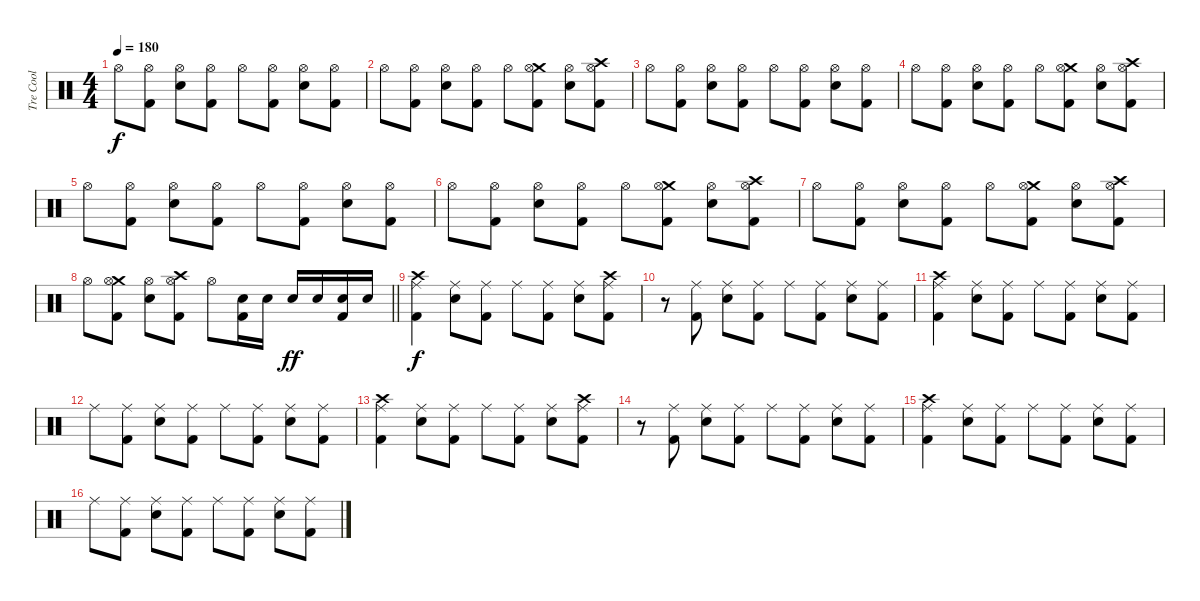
\track ("Tre Cool" "Tre Cool") {instrument percussion}
\staff {score}
\articulation defaults
\ts (4 4)
\tempo 180
\clef neutral
\ks c "Hi-Hat (open)".8{dy f}
("Hi-Hat (open)" "Kick (hit) 2").8 ("Hi-Hat (open)" "Electric Snare (hit)").8 ("Hi-Hat (open)" "Kick (hit) 2").8 "Hi-Hat (open)".8 ("Hi-Hat (open)" "Kick (hit) 2").8 ("Hi-Hat (open)" "Electric Snare (hit)").8 ("Hi-Hat (open)" "Kick (hit) 2").8 |
"Hi-Hat (open)".8 ("Hi-Hat (open)" "Kick (hit) 2").8 ("Hi-Hat (open)" "Electric Snare (hit)").8 ("Hi-Hat (open)" "Kick (hit) 2").8 "Hi-Hat (open)".8 ("Crash medium (hit)" "Hi-Hat (open)" "Kick (hit) 2").8 ("Hi-Hat (open)" "Electric Snare (hit)").8 ("Crash high (hit)" "Hi-Hat (open)" "Kick (hit) 2").8 |
"Hi-Hat (open)".8 ("Hi-Hat (open)" "Kick (hit) 2").8 ("Hi-Hat (open)" "Electric Snare (hit)").8 ("Hi-Hat (open)" "Kick (hit) 2").8 "Hi-Hat (open)".8 ("Hi-Hat (open)" "Kick (hit) 2").8 ("Hi-Hat (open)" "Electric Snare (hit)").8 ("Hi-Hat (open)" "Kick (hit) 2").8 |
"Hi-Hat (open)".8 ("Hi-Hat (open)" "Kick (hit) 2").8 ("Hi-Hat (open)" "Electric Snare (hit)").8 ("Hi-Hat (open)" "Kick (hit) 2").8 "Hi-Hat (open)".8 ("Crash medium (hit)" "Hi-Hat (open)" "Kick (hit) 2").8 ("Hi-Hat (open)" "Electric Snare (hit)").8 ("Crash high (hit)" "Hi-Hat (open)" "Kick (hit) 2").8 |
"Hi-Hat (open)".8 ("Hi-Hat (open)" "Kick (hit) 2").8 ("Hi-Hat (open)" "Electric Snare (hit)").8 ("Hi-Hat (open)" "Kick (hit) 2").8 "Hi-Hat (open)".8 ("Hi-Hat (open)" "Kick (hit) 2").8 ("Hi-Hat (open)" "Electric Snare (hit)").8 ("Hi-Hat (open)" "Kick (hit) 2").8 |
"Hi-Hat (open)".8 ("Hi-Hat (open)" "Kick (hit) 2").8 ("Hi-Hat (open)" "Electric Snare (hit)").8 ("Hi-Hat (open)" "Kick (hit) 2").8 "Hi-Hat (open)".8 ("Crash medium (hit)" "Hi-Hat (open)" "Kick (hit) 2").8 ("Hi-Hat (open)" "Electric Snare (hit)").8 ("Crash high (hit)" "Hi-Hat (open)" "Kick (hit) 2").8 |
"Hi-Hat (open)".8 ("Hi-Hat (open)" "Kick (hit) 2").8 ("Hi-Hat (open)" "Electric Snare (hit)").8 ("Hi-Hat (open)" "Kick (hit) 2").8 "Hi-Hat (open)".8 ("Crash medium (hit)" "Hi-Hat (open)" "Kick (hit) 2").8 ("Hi-Hat (open)" "Electric Snare (hit)").8 ("Crash high (hit)" "Hi-Hat (open)" "Kick (hit) 2").8 |
\barLineRight lightlight "Hi-Hat (open)".8
("Crash medium (hit)" "Hi-Hat (open)" "Kick (hit) 2").8 ("Hi-Hat (open)" "Electric Snare (hit)").8 ("Crash high (hit)" "Hi-Hat (open)" "Kick (hit) 2").8 "Hi-Hat (open)".8 ("Electric Snare (hit)" "Kick (hit) 2").16 "Electric Snare (hit)".16 "Electric Snare (hit)".16{dy ff} "Electric Snare (hit)".16 ("Electric Snare (hit)" "Kick (hit) 2").16 "Electric Snare (hit)".16 |
("Crash high (hit)" "Ride (middle)" "Kick (hit) 2").4{dy f} ("Ride (middle)" "Electric Snare (hit)").8 ("Ride (middle)" "Kick (hit) 2").8 "Ride (middle)".8 ("Ride (middle)" "Kick (hit) 2").8 ("Ride (middle)" "Electric Snare (hit)").8 ("Crash high (hit)" "Ride (middle)" "Kick (hit) 2").8 |
r.8 ("Ride (middle)" "Kick (hit) 2").8 ("Ride (middle)" "Electric Snare (hit)").8 ("Ride (middle)" "Kick (hit) 2").8 "Ride (middle)".8 ("Ride (middle)" "Kick (hit) 2").8 ("Ride (middle)" "Electric Snare (hit)").8 ("Ride (middle)" "Kick (hit) 2").8 |
("Crash high (hit)" "Ride (middle)" "Kick (hit) 2").4 ("Ride (middle)" "Electric Snare (hit)").8 ("Ride (middle)" "Kick (hit) 2").8 "Ride (middle)".8 ("Ride (middle)" "Kick (hit) 2").8 ("Ride (middle)" "Electric Snare (hit)").8 ("Ride (middle)" "Kick (hit) 2").8 |
"Ride (middle)".8 ("Ride (middle)" "Kick (hit) 2").8 ("Ride (middle)" "Electric Snare (hit)").8 ("Ride (middle)" "Kick (hit) 2").8 "Ride (middle)".8 ("Ride (middle)" "Kick (hit) 2").8 ("Ride (middle)" "Electric Snare (hit)").8 ("Ride (middle)" "Kick (hit) 2").8 |
("Crash high (hit)" "Ride (middle)" "Kick (hit) 2").4 ("Ride (middle)" "Electric Snare (hit)").8 ("Ride (middle)" "Kick (hit) 2").8 "Ride (middle)".8 ("Ride (middle)" "Kick (hit) 2").8 ("Ride (middle)" "Electric Snare (hit)").8 ("Crash high (hit)" "Ride (middle)" "Kick (hit) 2").8 |
r.8 ("Ride (middle)" "Kick (hit) 2").8 ("Ride (middle)" "Electric Snare (hit)").8 ("Ride (middle)" "Kick (hit) 2").8 "Ride (middle)".8 ("Ride (middle)" "Kick (hit) 2").8 ("Ride (middle)" "Electric Snare (hit)").8 ("Ride (middle)" "Kick (hit) 2").8 |
("Crash high (hit)" "Ride (middle)" "Kick (hit) 2").4 ("Ride (middle)" "Electric Snare (hit)").8 ("Ride (middle)" "Kick (hit) 2").8 "Ride (middle)".8 ("Ride (middle)" "Kick (hit) 2").8 ("Ride (middle)" "Electric Snare (hit)").8 ("Ride (middle)" "Kick (hit) 2").8 |
"Ride (middle)".8 ("Ride (middle)" "Kick (hit) 2").8 ("Ride (middle)" "Electric Snare (hit)").8 ("Ride (middle)" "Kick (hit) 2").8 "Ride (middle)".8 ("Ride (middle)" "Kick (hit) 2").8 ("Ride (middle)" "Electric Snare (hit)").8 ("Ride (middle)" "Kick (hit) 2").8
